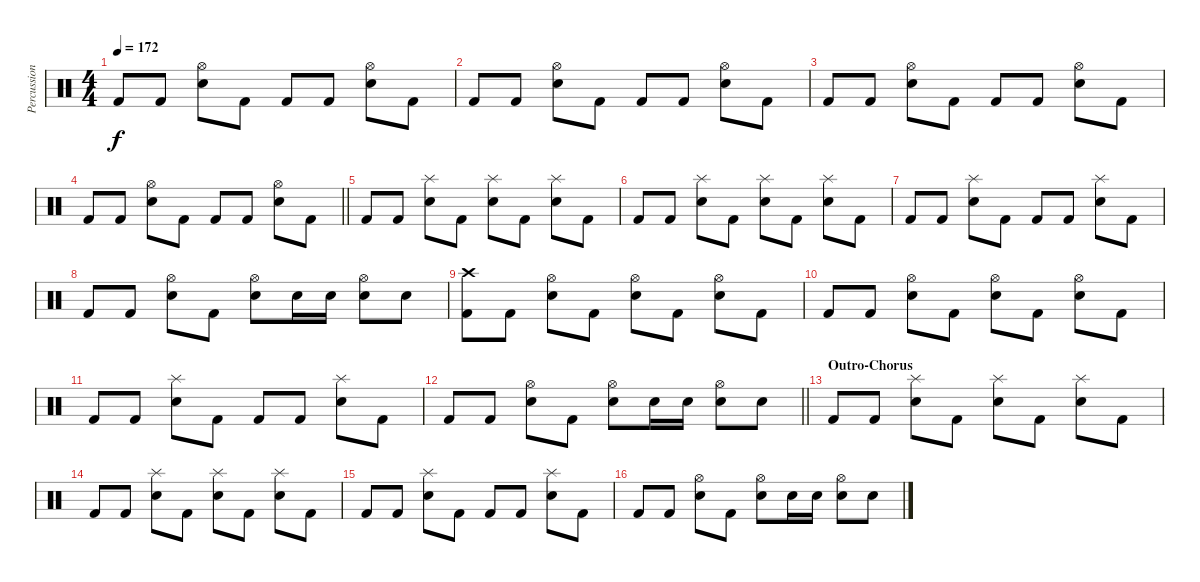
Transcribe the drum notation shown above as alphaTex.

\track ("Percussion" "Percussion") {instrument percussion}
\staff {score}
\articulation defaults
\ts (4 4)
\tempo 172
\clef neutral
\ks c "Kick (hit) 2".8{dy f} "Kick (hit) 2".8
("Hi-Hat (open)" "Electric Snare (hit)").8 "Kick (hit) 2".8 "Kick (hit) 2".8 "Kick (hit) 2".8 ("Hi-Hat (open)" "Electric Snare (hit)").8 "Kick (hit) 2".8 |
"Kick (hit) 2".8 "Kick (hit) 2".8 ("Hi-Hat (open)" "Electric Snare (hit)").8 "Kick (hit) 2".8 "Kick (hit) 2".8 "Kick (hit) 2".8 ("Hi-Hat (open)" "Electric Snare (hit)").8 "Kick (hit) 2".8 |
"Kick (hit) 2".8 "Kick (hit) 2".8 ("Hi-Hat (open)" "Electric Snare (hit)").8 "Kick (hit) 2".8 "Kick (hit) 2".8 "Kick (hit) 2".8 ("Hi-Hat (open)" "Electric Snare (hit)").8 "Kick (hit) 2".8 |
\barLineRight lightlight "Kick (hit) 2".8 "Kick (hit) 2".8
("Hi-Hat (open)" "Electric Snare (hit)").8 "Kick (hit) 2".8 "Kick (hit) 2".8 "Kick (hit) 2".8 ("Hi-Hat (open)" "Electric Snare (hit)").8 "Kick (hit) 2".8 |
"Kick (hit) 2".8 "Kick (hit) 2".8 ("Splash (hit)" "Electric Snare (hit)").8 "Kick (hit) 2".8 ("Splash (hit)" "Electric Snare (hit)").8 "Kick (hit) 2".8 ("Splash (hit)" "Electric Snare (hit)").8 "Kick (hit) 2".8 |
"Kick (hit) 2".8 "Kick (hit) 2".8 ("Splash (hit)" "Electric Snare (hit)").8 "Kick (hit) 2".8 ("Splash (hit)" "Electric Snare (hit)").8 "Kick (hit) 2".8 ("Splash (hit)" "Electric Snare (hit)").8 "Kick (hit) 2".8 |
"Kick (hit) 2".8 "Kick (hit) 2".8 ("Splash (hit)" "Electric Snare (hit)").8 "Kick (hit) 2".8 "Kick (hit) 2".8 "Kick (hit) 2".8 ("Splash (hit)" "Electric Snare (hit)").8 "Kick (hit) 2".8 |
"Kick (hit) 2".8 "Kick (hit) 2".8 ("Hi-Hat (open)" "Electric Snare (hit)").8 "Kick (hit) 2".8 ("Hi-Hat (open)" "Electric Snare (hit)").8 "Electric Snare (hit)".16 "Electric Snare (hit)".16 ("Hi-Hat (open)" "Electric Snare (hit)").8 "Electric Snare (hit)".8 |
("Crash high (hit)" "Kick (hit) 2").8 "Kick (hit) 2".8 ("Hi-Hat (open)" "Electric Snare (hit)").8 "Kick (hit) 2".8 ("Hi-Hat (open)" "Electric Snare (hit)").8 "Kick (hit) 2".8 ("Hi-Hat (open)" "Electric Snare (hit)").8 "Kick (hit) 2".8 |
"Kick (hit) 2".8 "Kick (hit) 2".8 ("Hi-Hat (open)" "Electric Snare (hit)").8 "Kick (hit) 2".8 ("Hi-Hat (open)" "Electric Snare (hit)").8 "Kick (hit) 2".8 ("Hi-Hat (open)" "Electric Snare (hit)").8 "Kick (hit) 2".8 |
"Kick (hit) 2".8 "Kick (hit) 2".8 ("Splash (hit)" "Electric Snare (hit)").8 "Kick (hit) 2".8 "Kick (hit) 2".8 "Kick (hit) 2".8 ("Splash (hit)" "Electric Snare (hit)").8 "Kick (hit) 2".8 |
\barLineRight lightlight "Kick (hit) 2".8 "Kick (hit) 2".8
("Hi-Hat (open)" "Electric Snare (hit)").8 "Kick (hit) 2".8 ("Hi-Hat (open)" "Electric Snare (hit)").8 "Electric Snare (hit)".16 "Electric Snare (hit)".16 ("Hi-Hat (open)" "Electric Snare (hit)").8 "Electric Snare (hit)".8 |
\section ("" "Outro-Chorus")
"Kick (hit) 2".8 "Kick (hit) 2".8 ("Splash (hit)" "Electric Snare (hit)").8 "Kick (hit) 2".8 ("Splash (hit)" "Electric Snare (hit)").8 "Kick (hit) 2".8 ("Splash (hit)" "Electric Snare (hit)").8 "Kick (hit) 2".8 |
"Kick (hit) 2".8 "Kick (hit) 2".8 ("Splash (hit)" "Electric Snare (hit)").8 "Kick (hit) 2".8 ("Splash (hit)" "Electric Snare (hit)").8 "Kick (hit) 2".8 ("Splash (hit)" "Electric Snare (hit)").8 "Kick (hit) 2".8 |
"Kick (hit) 2".8 "Kick (hit) 2".8 ("Splash (hit)" "Electric Snare (hit)").8 "Kick (hit) 2".8 "Kick (hit) 2".8 "Kick (hit) 2".8 ("Splash (hit)" "Electric Snare (hit)").8 "Kick (hit) 2".8 |
"Kick (hit) 2".8 "Kick (hit) 2".8 ("Hi-Hat (open)" "Electric Snare (hit)").8 "Kick (hit) 2".8 ("Hi-Hat (open)" "Electric Snare (hit)").8 "Electric Snare (hit)".16 "Electric Snare (hit)".16 ("Hi-Hat (open)" "Electric Snare (hit)").8 "Electric Snare (hit)".8
